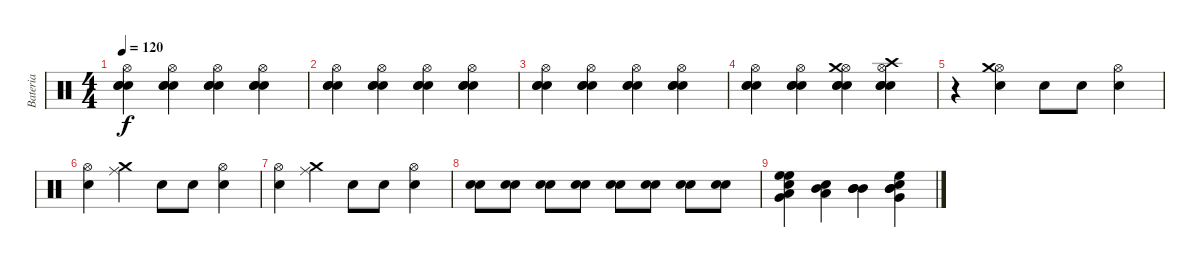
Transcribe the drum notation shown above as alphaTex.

\track ("Bateria" "Bateria") {instrument percussion}
\staff {score}
\articulation defaults
\ts (4 4)
\tempo 120
\clef neutral
\ks c
("Hi-Hat (open)" "Electric Snare (hit)" "Electric Snare (hit)" "Electric Snare (hit)").4{dy f} ("Hi-Hat (open)" "Electric Snare (hit)" "Electric Snare (hit)" "Electric Snare (hit)").4 ("Hi-Hat (open)" "Electric Snare (hit)" "Electric Snare (hit)" "Electric Snare (hit)").4 ("Hi-Hat (open)" "Electric Snare (hit)" "Electric Snare (hit)" "Electric Snare (hit)").4 |
("Hi-Hat (open)" "Electric Snare (hit)" "Electric Snare (hit)" "Electric Snare (hit)").4 ("Hi-Hat (open)" "Electric Snare (hit)" "Electric Snare (hit)" "Electric Snare (hit)").4 ("Hi-Hat (open)" "Electric Snare (hit)" "Electric Snare (hit)" "Electric Snare (hit)").4 ("Hi-Hat (open)" "Electric Snare (hit)" "Electric Snare (hit)" "Electric Snare (hit)").4 |
("Hi-Hat (open)" "Electric Snare (hit)" "Electric Snare (hit)" "Electric Snare (hit)").4 ("Hi-Hat (open)" "Electric Snare (hit)" "Electric Snare (hit)" "Electric Snare (hit)").4 ("Hi-Hat (open)" "Electric Snare (hit)" "Electric Snare (hit)" "Electric Snare (hit)").4 ("Hi-Hat (open)" "Electric Snare (hit)" "Electric Snare (hit)" "Electric Snare (hit)").4 |
("Hi-Hat (open)" "Electric Snare (hit)" "Electric Snare (hit)" "Electric Snare (hit)").4 ("Hi-Hat (open)" "Electric Snare (hit)" "Electric Snare (hit)" "Electric Snare (hit)").4 ("Hi-Hat (open)" "Crash medium (hit)" "Electric Snare (hit)" "Electric Snare (hit)" "Electric Snare (hit)").4 ("Crash high (hit)" "Hi-Hat (open)" "Electric Snare (hit)" "Electric Snare (hit)" "Electric Snare (hit)").4 |
r.4 ("Electric Snare (hit)" "Hi-Hat (open)" "Crash medium (hit)").4 "Electric Snare (hit)".8 "Electric Snare (hit)".8 ("Hi-Hat (open)" "Electric Snare (hit)").4 |
("Electric Snare (hit)" "Hi-Hat (open)").4 ("Ride (middle)" "Crash medium (hit)").4 "Electric Snare (hit)".8 "Electric Snare (hit)".8 ("Electric Snare (hit)" "Hi-Hat (open)").4 |
("Electric Snare (hit)" "Hi-Hat (open)").4 ("Ride (middle)" "Crash medium (hit)").4 "Electric Snare (hit)".8 "Electric Snare (hit)".8 ("Electric Snare (hit)" "Hi-Hat (open)").4 |
("Electric Snare (hit)" "Electric Snare (hit)").8 ("Electric Snare (hit)" "Electric Snare (hit)").8 ("Electric Snare (hit)" "Electric Snare (hit)").8 ("Electric Snare (hit)" "Electric Snare (hit)").8 ("Electric Snare (hit)" "Electric Snare (hit)").8 ("Electric Snare (hit)" "Electric Snare (hit)").8 ("Electric Snare (hit)" "Electric Snare (hit)").8 ("Electric Snare (hit)" "Electric Snare (hit)").8 |
("Low Floor Tom (hit)" "Very Low Tom (hit)" "Electric Snare (hit)" "High Floor Tom (hit)" "High Floor Tom (hit)").4 ("Low Floor Tom (hit)" "Electric Snare (hit)" "Mid Tom (hit)").4 ("Mid Tom (hit)" "Mid Tom (hit)" "Mid Tom (hit)").4 ("Electric Snare (hit)" "Mid Tom (hit)" "Very Low Tom (hit)" "High Floor Tom (hit)" "Mid Tom (hit)").4
